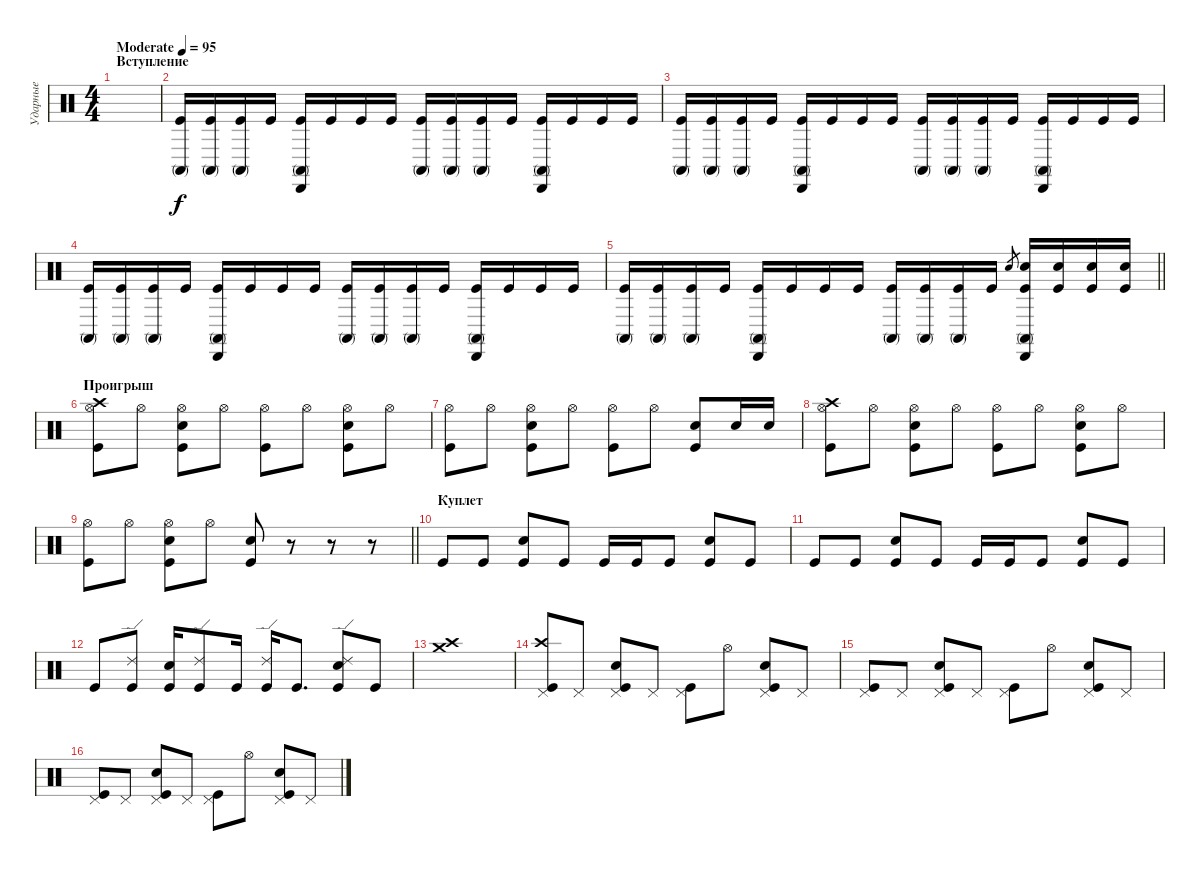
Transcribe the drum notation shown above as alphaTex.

\track ("Ударные" "Ударные") {instrument percussion}
\staff {score}
\articulation defaults
\ts (4 4)
\section ("" "Вступление")
\tempo (95 "Moderate")
\clef neutral
\ks c
|
("Kick (hit)" "Conga high (mute)").16{volume 15} ("Kick (hit)" "Conga high (mute)").16 ("Kick (hit)" "Conga high (mute)").16 "Kick (hit)".16 ("Kick (hit)" "Cabasa (hit)" "Conga high (mute)").16 "Kick (hit)".16 "Kick (hit)".16 "Kick (hit)".16 ("Kick (hit)" "Conga high (mute)").16 ("Kick (hit)" "Conga high (mute)").16 ("Kick (hit)" "Conga high (mute)").16 "Kick (hit)".16 ("Kick (hit)" "Cabasa (hit)" "Conga high (mute)").16 "Kick (hit)".16 "Kick (hit)".16 "Kick (hit)".16 |
("Kick (hit)" "Conga high (mute)").16 ("Kick (hit)" "Conga high (mute)").16 ("Kick (hit)" "Conga high (mute)").16 "Kick (hit)".16 ("Kick (hit)" "Cabasa (hit)" "Conga high (mute)").16 "Kick (hit)".16 "Kick (hit)".16 "Kick (hit)".16 ("Kick (hit)" "Conga high (mute)").16 ("Kick (hit)" "Conga high (mute)").16 ("Kick (hit)" "Conga high (mute)").16 "Kick (hit)".16 ("Kick (hit)" "Cabasa (hit)" "Conga high (mute)").16 "Kick (hit)".16 "Kick (hit)".16 "Kick (hit)".16 |
("Kick (hit)" "Conga high (mute)").16 ("Kick (hit)" "Conga high (mute)").16 ("Kick (hit)" "Conga high (mute)").16 "Kick (hit)".16 ("Kick (hit)" "Cabasa (hit)" "Conga high (mute)").16 "Kick (hit)".16 "Kick (hit)".16 "Kick (hit)".16 ("Kick (hit)" "Conga high (mute)").16 ("Kick (hit)" "Conga high (mute)").16 ("Kick (hit)" "Conga high (mute)").16 "Kick (hit)".16 ("Kick (hit)" "Cabasa (hit)" "Conga high (mute)").16 "Kick (hit)".16 "Kick (hit)".16 "Kick (hit)".16 |
\barLineRight lightlight
("Kick (hit)" "Conga high (mute)").16 ("Kick (hit)" "Conga high (mute)").16 ("Kick (hit)" "Conga high (mute)").16 "Kick (hit)".16 ("Kick (hit)" "Cabasa (hit)" "Conga high (mute)").16 "Kick (hit)".16 "Kick (hit)".16 "Kick (hit)".16 ("Kick (hit)" "Conga high (mute)").16 ("Kick (hit)" "Conga high (mute)").16 ("Kick (hit)" "Conga high (mute)").16 "Kick (hit)".16 "Electric Snare (hit)".8{gr} ("Kick (hit)" "Cabasa (hit)" "Conga high (mute)" "Electric Snare (hit)").16 ("Kick (hit)" "Electric Snare (hit)").16 ("Kick (hit)" "Electric Snare (hit)").16 ("Kick (hit)" "Electric Snare (hit)").16 |
\section ("" "Проигрыш")
("Crash high (hit)" "Hi-Hat (open)" "Kick (hit)").8 "Hi-Hat (open)".8 ("Electric Snare (hit)" "Hi-Hat (open)" "Kick (hit)").8 "Hi-Hat (open)".8 ("Hi-Hat (open)" "Kick (hit)").8 "Hi-Hat (open)".8 ("Electric Snare (hit)" "Hi-Hat (open)" "Kick (hit)").8 "Hi-Hat (open)".8 |
("Hi-Hat (open)" "Kick (hit)").8 "Hi-Hat (open)".8 ("Electric Snare (hit)" "Hi-Hat (open)" "Kick (hit)").8 "Hi-Hat (open)".8 ("Hi-Hat (open)" "Kick (hit)").8 "Hi-Hat (open)".8 ("Electric Snare (hit)" "Kick (hit)").8 "Electric Snare (hit)".16 "Electric Snare (hit)".16 |
("Crash high (hit)" "Hi-Hat (open)" "Kick (hit)").8 "Hi-Hat (open)".8 ("Electric Snare (hit)" "Hi-Hat (open)" "Kick (hit)").8 "Hi-Hat (open)".8 ("Hi-Hat (open)" "Kick (hit)").8 "Hi-Hat (open)".8 ("Electric Snare (hit)" "Hi-Hat (open)" "Kick (hit)").8 "Hi-Hat (open)".8 |
\barLineRight lightlight
("Hi-Hat (open)" "Kick (hit)").8 "Hi-Hat (open)".8 ("Electric Snare (hit)" "Hi-Hat (open)" "Kick (hit)").8 "Hi-Hat (open)".8 ("Electric Snare (hit)" "Kick (hit)").8 r.8 r.8 r.8 |
\section ("" "Куплет ")
"Kick (hit)".8{volume 10} "Kick (hit)".8 ("Kick (hit)" "Electric Snare (hit)").8 "Kick (hit)".8 "Kick (hit)".16 "Kick (hit)".16 "Kick (hit)".8 ("Kick (hit)" "Electric Snare (hit)").8 "Kick (hit)".8 |
"Kick (hit)".8 "Kick (hit)".8 ("Kick (hit)" "Electric Snare (hit)").8 "Kick (hit)".8 "Kick (hit)".16 "Kick (hit)".16 "Kick (hit)".8 ("Kick (hit)" "Electric Snare (hit)").8 "Kick (hit)".8 |
"Kick (hit)".8 ("Kick (hit)" "Ride (edge) 2").8 ("Kick (hit)" "Electric Snare (hit)").16 ("Kick (hit)" "Ride (edge) 2").8 "Kick (hit)".16 ("Kick (hit)" "Ride (edge) 2").16 "Kick (hit)".8{d} ("Kick (hit)" "Electric Snare (hit)" "Ride (edge) 2").8 "Kick (hit)".8{volume 0} |
("Crash medium (hit)" "Crash high (hit)").1{volume 16} |
("Crash high (hit)" "Pedal Hi-Hat (hit)" "Kick (hit)").8 "Pedal Hi-Hat (hit)".8 ("Electric Snare (hit)" "Pedal Hi-Hat (hit)" "Kick (hit)").8 "Pedal Hi-Hat (hit)".8 ("Pedal Hi-Hat (hit)" "Kick (hit)").8 "Hi-Hat (open)".8 ("Electric Snare (hit)" "Pedal Hi-Hat (hit)" "Kick (hit)").8 "Pedal Hi-Hat (hit)".8 |
("Pedal Hi-Hat (hit)" "Kick (hit)").8 "Pedal Hi-Hat (hit)".8 ("Electric Snare (hit)" "Pedal Hi-Hat (hit)" "Kick (hit)").8 "Pedal Hi-Hat (hit)".8 ("Pedal Hi-Hat (hit)" "Kick (hit)").8 "Hi-Hat (open)".8 ("Electric Snare (hit)" "Pedal Hi-Hat (hit)" "Kick (hit)").8 "Pedal Hi-Hat (hit)".8 |
("Pedal Hi-Hat (hit)" "Kick (hit)").8 "Pedal Hi-Hat (hit)".8 ("Electric Snare (hit)" "Pedal Hi-Hat (hit)" "Kick (hit)").8 "Pedal Hi-Hat (hit)".8 ("Pedal Hi-Hat (hit)" "Kick (hit)").8 "Hi-Hat (open)".8 ("Electric Snare (hit)" "Pedal Hi-Hat (hit)" "Kick (hit)").8 "Pedal Hi-Hat (hit)".8
